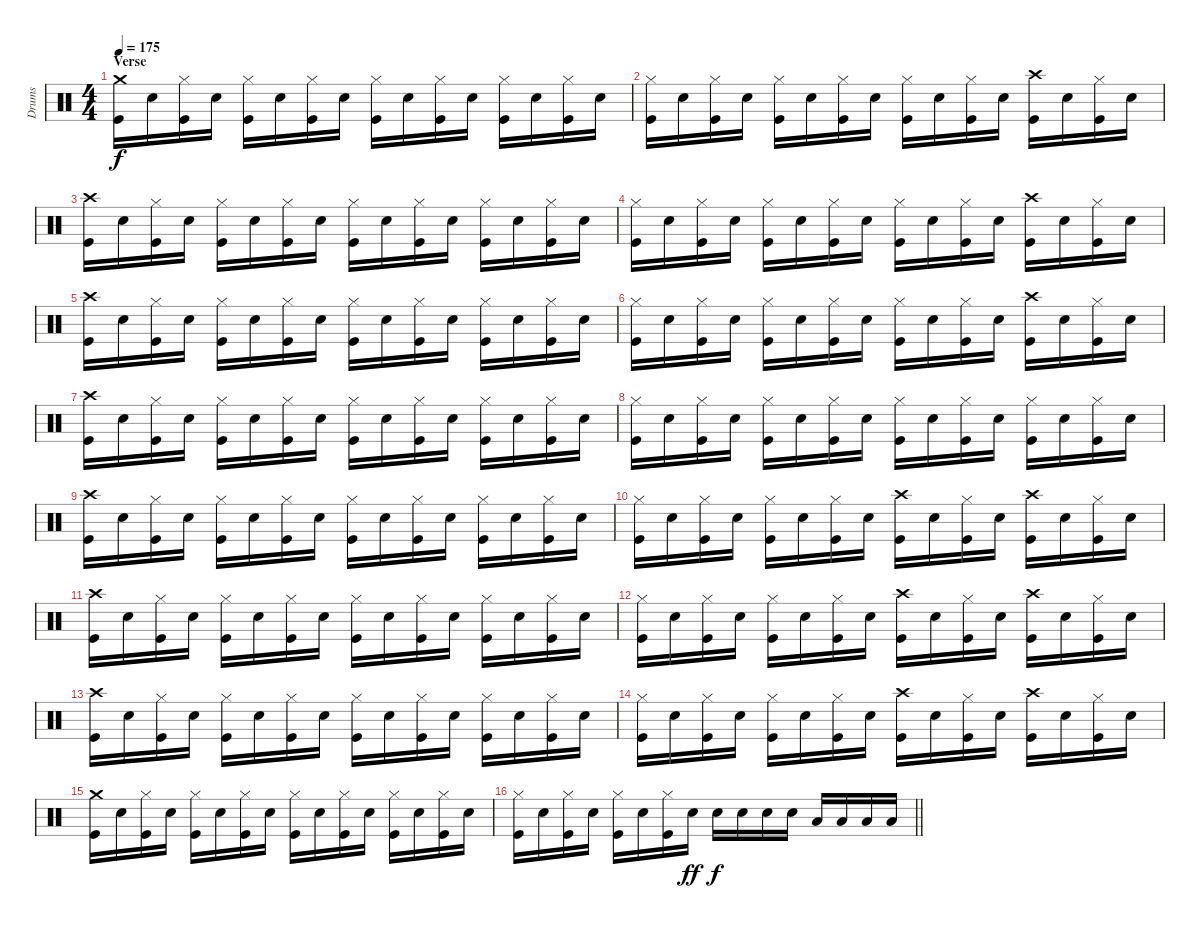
\track ("Drums" "Drums") {instrument percussion}
\staff {score}
\articulation defaults
\ts (4 4)
\section ("" "Verse")
\tempo 175
\clef neutral
\ks c
("Crash medium (hit)" "Kick (hit)").16{dy f} "Snare (hit) 2".16 ("Hi-Hat (closed)" "Kick (hit)").16 "Snare (hit) 2".16 ("Hi-Hat (closed)" "Kick (hit)").16 "Snare (hit) 2".16 ("Hi-Hat (closed)" "Kick (hit)").16 "Snare (hit) 2".16 ("Hi-Hat (closed)" "Kick (hit)").16 "Snare (hit) 2".16 ("Hi-Hat (closed)" "Kick (hit)").16 "Snare (hit) 2".16 ("Hi-Hat (closed)" "Kick (hit)").16 "Snare (hit) 2".16 ("Hi-Hat (closed)" "Kick (hit)").16 "Snare (hit) 2".16 |
("Hi-Hat (closed)" "Kick (hit)").16 "Snare (hit) 2".16 ("Hi-Hat (closed)" "Kick (hit)").16 "Snare (hit) 2".16 ("Hi-Hat (closed)" "Kick (hit)").16 "Snare (hit) 2".16 ("Hi-Hat (closed)" "Kick (hit)").16 "Snare (hit) 2".16 ("Hi-Hat (closed)" "Kick (hit)").16 "Snare (hit) 2".16 ("Hi-Hat (closed)" "Kick (hit)").16 "Snare (hit) 2".16 ("Crash high (hit)" "Kick (hit)").16 "Snare (hit) 2".16 ("Hi-Hat (closed)" "Kick (hit)").16 "Snare (hit) 2".16 |
("Crash high (hit)" "Kick (hit)").16 "Snare (hit) 2".16 ("Hi-Hat (closed)" "Kick (hit)").16 "Snare (hit) 2".16 ("Hi-Hat (closed)" "Kick (hit)").16 "Snare (hit) 2".16 ("Hi-Hat (closed)" "Kick (hit)").16 "Snare (hit) 2".16 ("Hi-Hat (closed)" "Kick (hit)").16 "Snare (hit) 2".16 ("Hi-Hat (closed)" "Kick (hit)").16 "Snare (hit) 2".16 ("Hi-Hat (closed)" "Kick (hit)").16 "Snare (hit) 2".16 ("Hi-Hat (closed)" "Kick (hit)").16 "Snare (hit) 2".16 |
("Hi-Hat (closed)" "Kick (hit)").16 "Snare (hit) 2".16 ("Hi-Hat (closed)" "Kick (hit)").16 "Snare (hit) 2".16 ("Hi-Hat (closed)" "Kick (hit)").16 "Snare (hit) 2".16 ("Hi-Hat (closed)" "Kick (hit)").16 "Snare (hit) 2".16 ("Hi-Hat (closed)" "Kick (hit)").16 "Snare (hit) 2".16 ("Hi-Hat (closed)" "Kick (hit)").16 "Snare (hit) 2".16 ("Crash high (hit)" "Kick (hit)").16 "Snare (hit) 2".16 ("Hi-Hat (closed)" "Kick (hit)").16 "Snare (hit) 2".16 |
("Crash high (hit)" "Kick (hit)").16 "Snare (hit) 2".16 ("Hi-Hat (closed)" "Kick (hit)").16 "Snare (hit) 2".16 ("Hi-Hat (closed)" "Kick (hit)").16 "Snare (hit) 2".16 ("Hi-Hat (closed)" "Kick (hit)").16 "Snare (hit) 2".16 ("Hi-Hat (closed)" "Kick (hit)").16 "Snare (hit) 2".16 ("Hi-Hat (closed)" "Kick (hit)").16 "Snare (hit) 2".16 ("Hi-Hat (closed)" "Kick (hit)").16 "Snare (hit) 2".16 ("Hi-Hat (closed)" "Kick (hit)").16 "Snare (hit) 2".16 |
("Hi-Hat (closed)" "Kick (hit)").16 "Snare (hit) 2".16 ("Hi-Hat (closed)" "Kick (hit)").16 "Snare (hit) 2".16 ("Hi-Hat (closed)" "Kick (hit)").16 "Snare (hit) 2".16 ("Hi-Hat (closed)" "Kick (hit)").16 "Snare (hit) 2".16 ("Hi-Hat (closed)" "Kick (hit)").16 "Snare (hit) 2".16 ("Hi-Hat (closed)" "Kick (hit)").16 "Snare (hit) 2".16 ("Crash high (hit)" "Kick (hit)").16 "Snare (hit) 2".16 ("Hi-Hat (closed)" "Kick (hit)").16 "Snare (hit) 2".16 |
("Crash high (hit)" "Kick (hit)").16 "Snare (hit) 2".16 ("Hi-Hat (closed)" "Kick (hit)").16 "Snare (hit) 2".16 ("Hi-Hat (closed)" "Kick (hit)").16 "Snare (hit) 2".16 ("Hi-Hat (closed)" "Kick (hit)").16 "Snare (hit) 2".16 ("Hi-Hat (closed)" "Kick (hit)").16 "Snare (hit) 2".16 ("Hi-Hat (closed)" "Kick (hit)").16 "Snare (hit) 2".16 ("Hi-Hat (closed)" "Kick (hit)").16 "Snare (hit) 2".16 ("Hi-Hat (closed)" "Kick (hit)").16 "Snare (hit) 2".16 |
("Hi-Hat (closed)" "Kick (hit)").16 "Snare (hit) 2".16 ("Hi-Hat (closed)" "Kick (hit)").16 "Snare (hit) 2".16 ("Hi-Hat (closed)" "Kick (hit)").16 "Snare (hit) 2".16 ("Hi-Hat (closed)" "Kick (hit)").16 "Snare (hit) 2".16 ("Hi-Hat (closed)" "Kick (hit)").16 "Snare (hit) 2".16 ("Hi-Hat (closed)" "Kick (hit)").16 "Snare (hit) 2".16 ("Hi-Hat (closed)" "Kick (hit)").16 "Snare (hit) 2".16 ("Hi-Hat (closed)" "Kick (hit)").16 "Snare (hit) 2".16 |
("Crash high (hit)" "Kick (hit)").16 "Snare (hit) 2".16 ("Hi-Hat (closed)" "Kick (hit)").16 "Snare (hit) 2".16 ("Hi-Hat (closed)" "Kick (hit)").16 "Snare (hit) 2".16 ("Hi-Hat (closed)" "Kick (hit)").16 "Snare (hit) 2".16 ("Hi-Hat (closed)" "Kick (hit)").16 "Snare (hit) 2".16 ("Hi-Hat (closed)" "Kick (hit)").16 "Snare (hit) 2".16 ("Hi-Hat (closed)" "Kick (hit)").16 "Snare (hit) 2".16 ("Hi-Hat (closed)" "Kick (hit)").16 "Snare (hit) 2".16 |
("Hi-Hat (closed)" "Kick (hit)").16 "Snare (hit) 2".16 ("Hi-Hat (closed)" "Kick (hit)").16 "Snare (hit) 2".16 ("Hi-Hat (closed)" "Kick (hit)").16 "Snare (hit) 2".16 ("Hi-Hat (closed)" "Kick (hit)").16 "Snare (hit) 2".16 ("Crash high (hit)" "Kick (hit)").16 "Snare (hit) 2".16 ("Hi-Hat (closed)" "Kick (hit)").16 "Snare (hit) 2".16 ("Crash high (hit)" "Kick (hit)").16 "Snare (hit) 2".16 ("Hi-Hat (closed)" "Kick (hit)").16 "Snare (hit) 2".16 |
("Crash high (hit)" "Kick (hit)").16 "Snare (hit) 2".16 ("Hi-Hat (closed)" "Kick (hit)").16 "Snare (hit) 2".16 ("Hi-Hat (closed)" "Kick (hit)").16 "Snare (hit) 2".16 ("Hi-Hat (closed)" "Kick (hit)").16 "Snare (hit) 2".16 ("Hi-Hat (closed)" "Kick (hit)").16 "Snare (hit) 2".16 ("Hi-Hat (closed)" "Kick (hit)").16 "Snare (hit) 2".16 ("Hi-Hat (closed)" "Kick (hit)").16 "Snare (hit) 2".16 ("Hi-Hat (closed)" "Kick (hit)").16 "Snare (hit) 2".16 |
("Hi-Hat (closed)" "Kick (hit)").16 "Snare (hit) 2".16 ("Hi-Hat (closed)" "Kick (hit)").16 "Snare (hit) 2".16 ("Hi-Hat (closed)" "Kick (hit)").16 "Snare (hit) 2".16 ("Hi-Hat (closed)" "Kick (hit)").16 "Snare (hit) 2".16 ("Crash high (hit)" "Kick (hit)").16 "Snare (hit) 2".16 ("Hi-Hat (closed)" "Kick (hit)").16 "Snare (hit) 2".16 ("Crash high (hit)" "Kick (hit)").16 "Snare (hit) 2".16 ("Hi-Hat (closed)" "Kick (hit)").16 "Snare (hit) 2".16 |
("Crash high (hit)" "Kick (hit)").16 "Snare (hit) 2".16 ("Hi-Hat (closed)" "Kick (hit)").16 "Snare (hit) 2".16 ("Hi-Hat (closed)" "Kick (hit)").16 "Snare (hit) 2".16 ("Hi-Hat (closed)" "Kick (hit)").16 "Snare (hit) 2".16 ("Hi-Hat (closed)" "Kick (hit)").16 "Snare (hit) 2".16 ("Hi-Hat (closed)" "Kick (hit)").16 "Snare (hit) 2".16 ("Hi-Hat (closed)" "Kick (hit)").16 "Snare (hit) 2".16 ("Hi-Hat (closed)" "Kick (hit)").16 "Snare (hit) 2".16 |
("Hi-Hat (closed)" "Kick (hit)").16 "Snare (hit) 2".16 ("Hi-Hat (closed)" "Kick (hit)").16 "Snare (hit) 2".16 ("Hi-Hat (closed)" "Kick (hit)").16 "Snare (hit) 2".16 ("Hi-Hat (closed)" "Kick (hit)").16 "Snare (hit) 2".16 ("Crash high (hit)" "Kick (hit)").16 "Snare (hit) 2".16 ("Hi-Hat (closed)" "Kick (hit)").16 "Snare (hit) 2".16 ("Crash high (hit)" "Kick (hit)").16 "Snare (hit) 2".16 ("Hi-Hat (closed)" "Kick (hit)").16 "Snare (hit) 2".16 |
("Crash medium (hit)" "Kick (hit)").16 "Snare (hit) 2".16 ("Hi-Hat (closed)" "Kick (hit)").16 "Snare (hit) 2".16 ("Hi-Hat (closed)" "Kick (hit)").16 "Snare (hit) 2".16 ("Hi-Hat (closed)" "Kick (hit)").16 "Snare (hit) 2".16 ("Hi-Hat (closed)" "Kick (hit)").16 "Snare (hit) 2".16 ("Hi-Hat (closed)" "Kick (hit)").16 "Snare (hit) 2".16 ("Hi-Hat (closed)" "Kick (hit)").16 "Snare (hit) 2".16 ("Hi-Hat (closed)" "Kick (hit)").16 "Snare (hit) 2".16 |
\barLineRight lightlight
("Hi-Hat (closed)" "Kick (hit)").16 "Snare (hit) 2".16 ("Hi-Hat (closed)" "Kick (hit)").16 "Snare (hit) 2".16 ("Hi-Hat (closed)" "Kick (hit)").16 "Snare (hit) 2".16 ("Hi-Hat (closed)" "Kick (hit)").16 "Snare (hit) 2".16{dy ff} "Snare (hit) 2".16{dy f} "Snare (hit) 2".16 "Snare (hit) 2".16 "Snare (hit) 2".16 "Low Floor Tom (hit)".16 "Low Floor Tom (hit)".16 "Low Floor Tom (hit)".16 "Low Floor Tom (hit)".16
